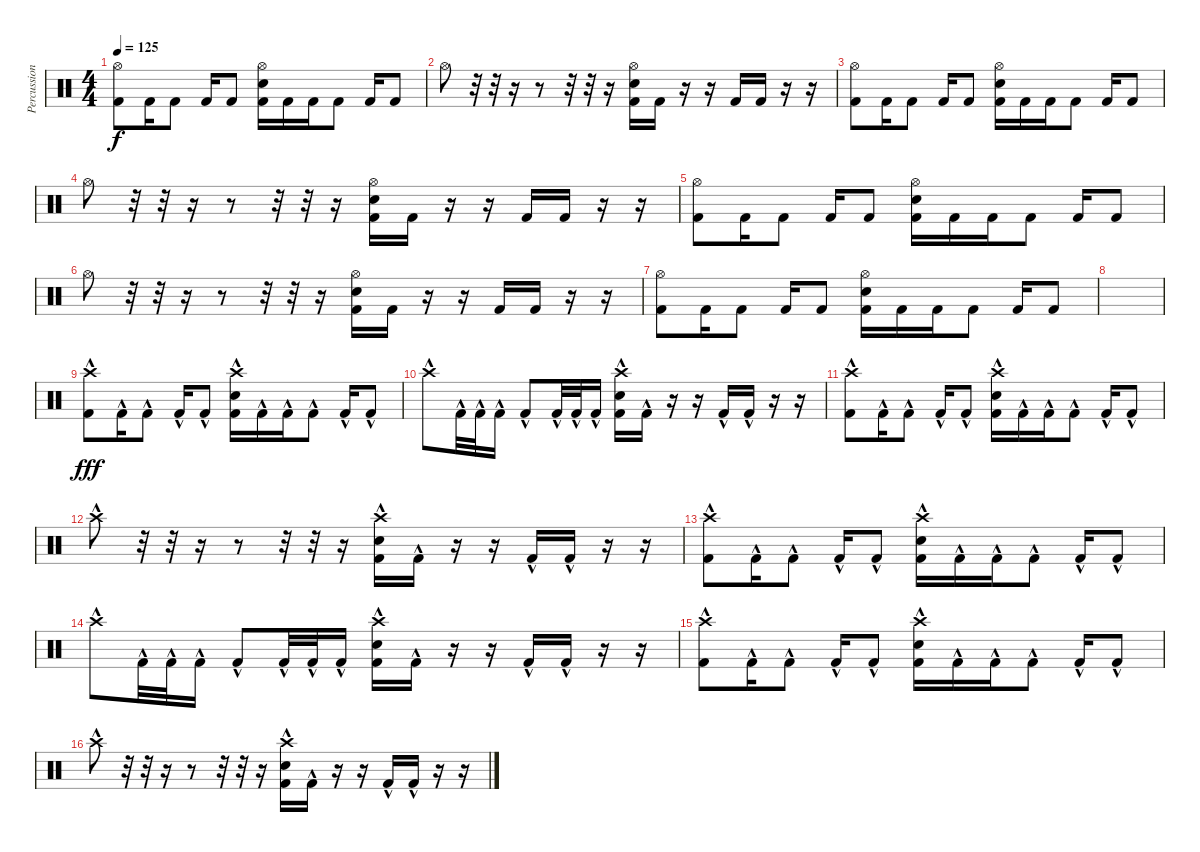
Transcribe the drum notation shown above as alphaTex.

\track ("Percussion" "Percussion") {instrument percussion}
\staff {score}
\articulation defaults
\ts (4 4)
\tempo 125
\clef neutral
\ks c
("Hi-Hat (open)" "Kick (hit) 2").8{dy f} "Kick (hit) 2".16 "Kick (hit) 2".8 "Kick (hit) 2".16 "Kick (hit) 2".8 ("Hi-Hat (open)" "Electric Snare (hit)" "Kick (hit) 2").16 "Kick (hit) 2".16 "Kick (hit) 2".16 "Kick (hit) 2".8 "Kick (hit) 2".16 "Kick (hit) 2".8 |
"Hi-Hat (open)".8 r.32 r.32 r.16 r.8 r.32 r.32 r.16 ("Hi-Hat (open)" "Electric Snare (hit)" "Kick (hit) 2").16 "Kick (hit) 2".16 r.16 r.16 "Kick (hit) 2".16 "Kick (hit) 2".16 r.16 r.16 |
("Hi-Hat (open)" "Kick (hit) 2").8 "Kick (hit) 2".16 "Kick (hit) 2".8 "Kick (hit) 2".16 "Kick (hit) 2".8 ("Hi-Hat (open)" "Electric Snare (hit)" "Kick (hit) 2").16 "Kick (hit) 2".16 "Kick (hit) 2".16 "Kick (hit) 2".8 "Kick (hit) 2".16 "Kick (hit) 2".8 |
"Hi-Hat (open)".8 r.32 r.32 r.16 r.8 r.32 r.32 r.16 ("Hi-Hat (open)" "Electric Snare (hit)" "Kick (hit) 2").16 "Kick (hit) 2".16 r.16 r.16 "Kick (hit) 2".16 "Kick (hit) 2".16 r.16 r.16 |
("Hi-Hat (open)" "Kick (hit) 2").8 "Kick (hit) 2".16 "Kick (hit) 2".8 "Kick (hit) 2".16 "Kick (hit) 2".8 ("Hi-Hat (open)" "Electric Snare (hit)" "Kick (hit) 2").16 "Kick (hit) 2".16 "Kick (hit) 2".16 "Kick (hit) 2".8 "Kick (hit) 2".16 "Kick (hit) 2".8 |
"Hi-Hat (open)".8 r.32 r.32 r.16 r.8 r.32 r.32 r.16 ("Hi-Hat (open)" "Electric Snare (hit)" "Kick (hit) 2").16 "Kick (hit) 2".16 r.16 r.16 "Kick (hit) 2".16 "Kick (hit) 2".16 r.16 r.16 |
("Hi-Hat (open)" "Kick (hit) 2").8 "Kick (hit) 2".16 "Kick (hit) 2".8 "Kick (hit) 2".16 "Kick (hit) 2".8 ("Hi-Hat (open)" "Electric Snare (hit)" "Kick (hit) 2").16 "Kick (hit) 2".16 "Kick (hit) 2".16 "Kick (hit) 2".8 "Kick (hit) 2".16 "Kick (hit) 2".8 |
|
("Crash high (hit)"{hac} "Kick (hit) 2"{hac}).8{dy fff} "Kick (hit) 2"{hac}.16 "Kick (hit) 2"{hac}.8 "Kick (hit) 2"{hac}.16 "Kick (hit) 2"{hac}.8 ("Crash high (hit)"{hac} "Electric Snare (hit)"{hac} "Kick (hit) 2"{hac}).16 "Kick (hit) 2"{hac}.16 "Kick (hit) 2"{hac}.16 "Kick (hit) 2"{hac}.8 "Kick (hit) 2"{hac}.16 "Kick (hit) 2"{hac}.8 |
"Crash high (hit)"{hac}.8 "Kick (hit) 2"{hac}.32 "Kick (hit) 2"{hac}.32 "Kick (hit) 2"{hac}.16 "Kick (hit) 2"{hac}.8 "Kick (hit) 2"{hac}.32 "Kick (hit) 2"{hac}.32 "Kick (hit) 2"{hac}.16 ("Crash high (hit)"{hac} "Electric Snare (hit)"{hac} "Kick (hit) 2"{hac}).16 "Kick (hit) 2"{hac}.16 r.16 r.16 "Kick (hit) 2"{hac}.16 "Kick (hit) 2"{hac}.16 r.16 r.16 |
("Crash high (hit)"{hac} "Kick (hit) 2"{hac}).8 "Kick (hit) 2"{hac}.16 "Kick (hit) 2"{hac}.8 "Kick (hit) 2"{hac}.16 "Kick (hit) 2"{hac}.8 ("Crash high (hit)"{hac} "Electric Snare (hit)"{hac} "Kick (hit) 2"{hac}).16 "Kick (hit) 2"{hac}.16 "Kick (hit) 2"{hac}.16 "Kick (hit) 2"{hac}.8 "Kick (hit) 2"{hac}.16 "Kick (hit) 2"{hac}.8 |
"Crash high (hit)"{hac}.8 r.32 r.32 r.16 r.8 r.32 r.32 r.16 ("Crash high (hit)"{hac} "Electric Snare (hit)"{hac} "Kick (hit) 2"{hac}).16 "Kick (hit) 2"{hac}.16 r.16 r.16 "Kick (hit) 2"{hac}.16 "Kick (hit) 2"{hac}.16 r.16 r.16 |
("Crash high (hit)"{hac} "Kick (hit) 2"{hac}).8 "Kick (hit) 2"{hac}.16 "Kick (hit) 2"{hac}.8 "Kick (hit) 2"{hac}.16 "Kick (hit) 2"{hac}.8 ("Crash high (hit)"{hac} "Electric Snare (hit)"{hac} "Kick (hit) 2"{hac}).16 "Kick (hit) 2"{hac}.16 "Kick (hit) 2"{hac}.16 "Kick (hit) 2"{hac}.8 "Kick (hit) 2"{hac}.16 "Kick (hit) 2"{hac}.8 |
"Crash high (hit)"{hac}.8 "Kick (hit) 2"{hac}.32 "Kick (hit) 2"{hac}.32 "Kick (hit) 2"{hac}.16 "Kick (hit) 2"{hac}.8 "Kick (hit) 2"{hac}.32 "Kick (hit) 2"{hac}.32 "Kick (hit) 2"{hac}.16 ("Crash high (hit)"{hac} "Electric Snare (hit)"{hac} "Kick (hit) 2"{hac}).16 "Kick (hit) 2"{hac}.16 r.16 r.16 "Kick (hit) 2"{hac}.16 "Kick (hit) 2"{hac}.16 r.16 r.16 |
("Crash high (hit)"{hac} "Kick (hit) 2"{hac}).8 "Kick (hit) 2"{hac}.16 "Kick (hit) 2"{hac}.8 "Kick (hit) 2"{hac}.16 "Kick (hit) 2"{hac}.8 ("Crash high (hit)"{hac} "Electric Snare (hit)"{hac} "Kick (hit) 2"{hac}).16 "Kick (hit) 2"{hac}.16 "Kick (hit) 2"{hac}.16 "Kick (hit) 2"{hac}.8 "Kick (hit) 2"{hac}.16 "Kick (hit) 2"{hac}.8 |
"Crash high (hit)"{hac}.8 r.32 r.32 r.16 r.8 r.32 r.32 r.16 ("Crash high (hit)"{hac} "Electric Snare (hit)"{hac} "Kick (hit) 2"{hac}).16 "Kick (hit) 2"{hac}.16 r.16 r.16 "Kick (hit) 2"{hac}.16 "Kick (hit) 2"{hac}.16 r.16 r.16
